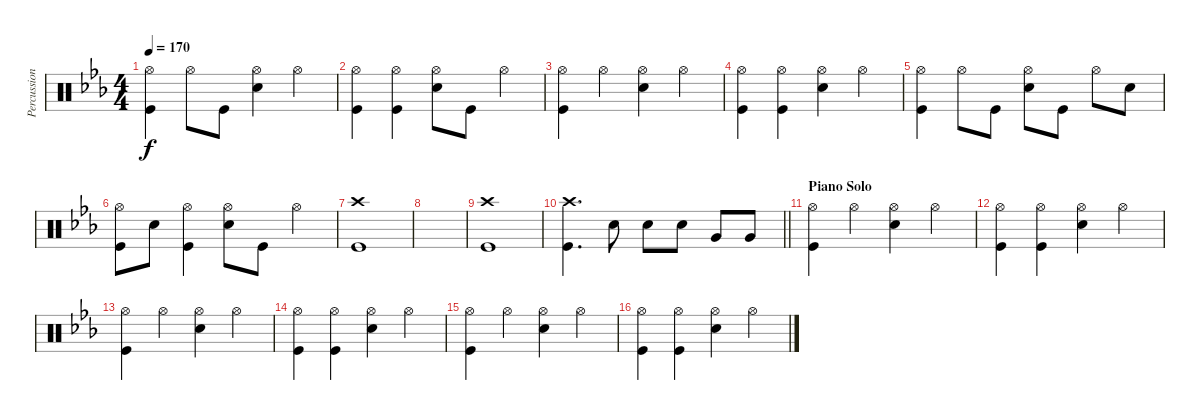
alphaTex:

\track ("Percussion" "Percussion") {instrument percussion}
\staff {score}
\articulation defaults
\ts (4 4)
\tempo 170
\clef neutral
\ks eb
("Kick (hit)" "Hi-Hat (open)").4{dy f} "Hi-Hat (open)".8 "Kick (hit)".8 ("Hi-Hat (open)" "Snare (hit) 2").4 "Hi-Hat (open)".4 |
("Hi-Hat (open)" "Kick (hit)").4 ("Kick (hit)" "Hi-Hat (open)").4 ("Hi-Hat (open)" "Snare (hit) 2").8 "Kick (hit)".8 "Hi-Hat (open)".4 |
("Kick (hit)" "Hi-Hat (open)").4 "Hi-Hat (open)".4 ("Hi-Hat (open)" "Snare (hit) 2").4 "Hi-Hat (open)".4 |
("Hi-Hat (open)" "Kick (hit)").4 ("Kick (hit)" "Hi-Hat (open)").4 ("Hi-Hat (open)" "Snare (hit) 2").4 "Hi-Hat (open)".4 |
("Hi-Hat (open)" "Kick (hit)").4 "Hi-Hat (open)".8 "Kick (hit)".8 ("Hi-Hat (open)" "Snare (hit) 2").8 "Kick (hit)".8 "Hi-Hat (open)".8 "Snare (hit) 2".8 |
("Hi-Hat (open)" "Kick (hit)").8 "Snare (hit) 2".8 ("Kick (hit)" "Hi-Hat (open)").4 ("Hi-Hat (open)" "Snare (hit) 2").8 "Kick (hit)".8 "Hi-Hat (open)".4 |
("Crash high (hit)" "Kick (hit)").1 |
|
("Crash high (hit)" "Kick (hit)").1 |
\barLineRight lightlight
("Crash high (hit)" "Kick (hit)").4{d} "Snare (hit) 2".8 "Snare (hit) 2".8 "Snare (hit) 2".8 "Very Low Tom (hit)".8 "Very Low Tom (hit)".8 |
\section ("" "Piano Solo")
("Kick (hit)" "Hi-Hat (open)").4 "Hi-Hat (open)".4 ("Hi-Hat (open)" "Snare (hit) 2").4 "Hi-Hat (open)".4 |
("Hi-Hat (open)" "Kick (hit)").4 ("Kick (hit)" "Hi-Hat (open)").4 ("Hi-Hat (open)" "Snare (hit) 2").4 "Hi-Hat (open)".4 |
("Kick (hit)" "Hi-Hat (open)").4 "Hi-Hat (open)".4 ("Hi-Hat (open)" "Snare (hit) 2").4 "Hi-Hat (open)".4 |
("Hi-Hat (open)" "Kick (hit)").4 ("Kick (hit)" "Hi-Hat (open)").4 ("Hi-Hat (open)" "Snare (hit) 2").4 "Hi-Hat (open)".4 |
("Kick (hit)" "Hi-Hat (open)").4 "Hi-Hat (open)".4 ("Hi-Hat (open)" "Snare (hit) 2").4 "Hi-Hat (open)".4 |
("Hi-Hat (open)" "Kick (hit)").4 ("Kick (hit)" "Hi-Hat (open)").4 ("Hi-Hat (open)" "Snare (hit) 2").4 "Hi-Hat (open)".4
